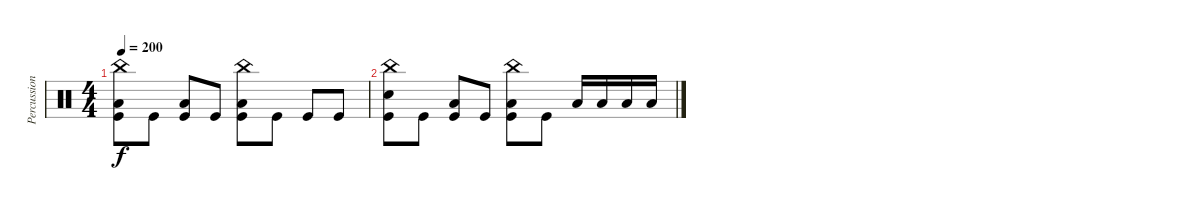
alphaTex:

\track ("Percussion" "Percussion") {instrument percussion}
\staff {score}
\articulation defaults
\ts (4 4)
\tempo 200
\clef neutral
\ks c
("China (hit)" "Low Tom (hit)" "Kick (hit)").8{dy f} "Kick (hit)".8 ("Low Tom (hit)" "Kick (hit)").8 "Kick (hit)".8 ("China (hit)" "Low Tom (hit)" "Kick (hit)").8 "Kick (hit)".8 "Kick (hit)".8 "Kick (hit)".8 |
("China (hit)" "Electric Snare (hit)" "Kick (hit)").8 "Kick (hit)".8 ("Low Tom (hit)" "Kick (hit)").8 "Kick (hit)".8 ("China (hit)" "Low Tom (hit)" "Kick (hit)").8 "Kick (hit)".8 "Low Tom (hit)".16 "Low Tom (hit)".16 "Low Tom (hit)".16 "Low Tom (hit)".16
